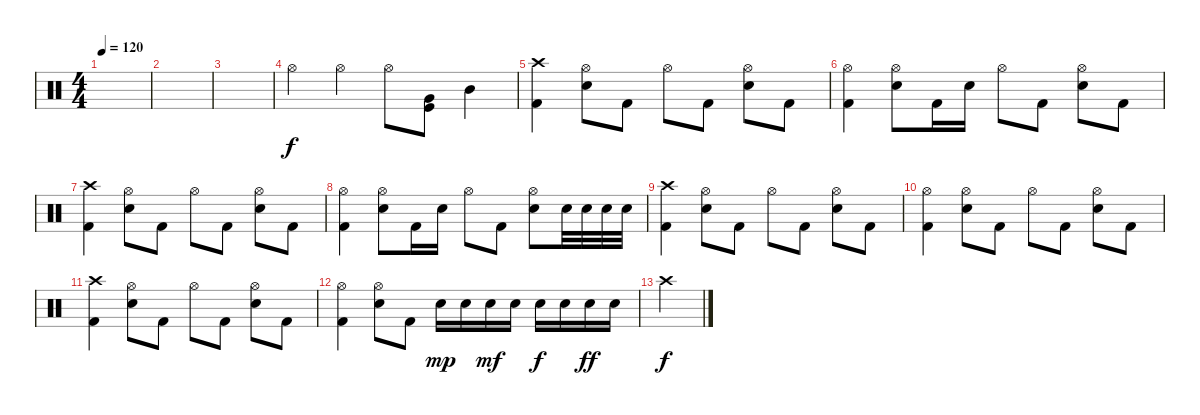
\track "" {instrument percussion}
\staff {score}
\articulation defaults
\ts (4 4)
\tempo 120
\clef neutral
\ks c
|
|
|
"Hi-Hat (open)".4 "Hi-Hat (open)".4 "Hi-Hat (open)".8 ("Kick (hit)" "Very Low Tom (hit)").8{bd 240} "Mid Tom (hit)".4 |
("Crash high (hit)" "Kick (hit) 2").4 ("Hi-Hat (open)" "Snare (hit) 2").8 "Kick (hit) 2".8 "Hi-Hat (open)".8 "Kick (hit) 2".8 ("Hi-Hat (open)" "Snare (hit) 2").8 "Kick (hit) 2".8 |
("Hi-Hat (open)" "Kick (hit) 2").4 ("Hi-Hat (open)" "Snare (hit) 2").8 "Kick (hit) 2".16 "Snare (hit) 2".16 "Hi-Hat (open)".8 "Kick (hit) 2".8 ("Hi-Hat (open)" "Snare (hit) 2").8 "Kick (hit) 2".8 |
("Crash high (hit)" "Kick (hit) 2").4 ("Hi-Hat (open)" "Snare (hit) 2").8 "Kick (hit) 2".8 "Hi-Hat (open)".8 "Kick (hit) 2".8 ("Hi-Hat (open)" "Snare (hit) 2").8 "Kick (hit) 2".8 |
("Hi-Hat (open)" "Kick (hit) 2").4 ("Hi-Hat (open)" "Snare (hit) 2").8 "Kick (hit) 2".16 "Snare (hit) 2".16 "Hi-Hat (open)".8 "Kick (hit) 2".8 ("Hi-Hat (open)" "Snare (hit) 2").8 "Snare (hit) 2".32 "Snare (hit) 2".32 "Snare (hit) 2".32 "Snare (hit) 2".32 |
("Crash high (hit)" "Kick (hit) 2").4 ("Hi-Hat (open)" "Snare (hit) 2").8 "Kick (hit) 2".8 "Hi-Hat (open)".8 "Kick (hit) 2".8 ("Hi-Hat (open)" "Snare (hit) 2").8 "Kick (hit) 2".8 |
("Hi-Hat (open)" "Kick (hit) 2").4 ("Hi-Hat (open)" "Snare (hit) 2").8 "Kick (hit) 2".8 "Hi-Hat (open)".8 "Kick (hit) 2".8 ("Hi-Hat (open)" "Snare (hit) 2").8 "Kick (hit) 2".8 |
("Crash high (hit)" "Kick (hit) 2").4 ("Hi-Hat (open)" "Snare (hit) 2").8 "Kick (hit) 2".8 "Hi-Hat (open)".8 "Kick (hit) 2".8 ("Hi-Hat (open)" "Snare (hit) 2").8 "Kick (hit) 2".8 |
("Hi-Hat (open)" "Kick (hit) 2").4 ("Hi-Hat (open)" "Snare (hit) 2").8 "Kick (hit) 2".8 "Snare (hit) 2".16{dy mp} "Snare (hit) 2".16 "Snare (hit) 2".16{dy mf} "Snare (hit) 2".16 "Snare (hit) 2".16{dy f} "Snare (hit) 2".16 "Snare (hit) 2".16{dy ff} "Snare (hit) 2".16 |
"Crash high (hit)".4{dy f}
